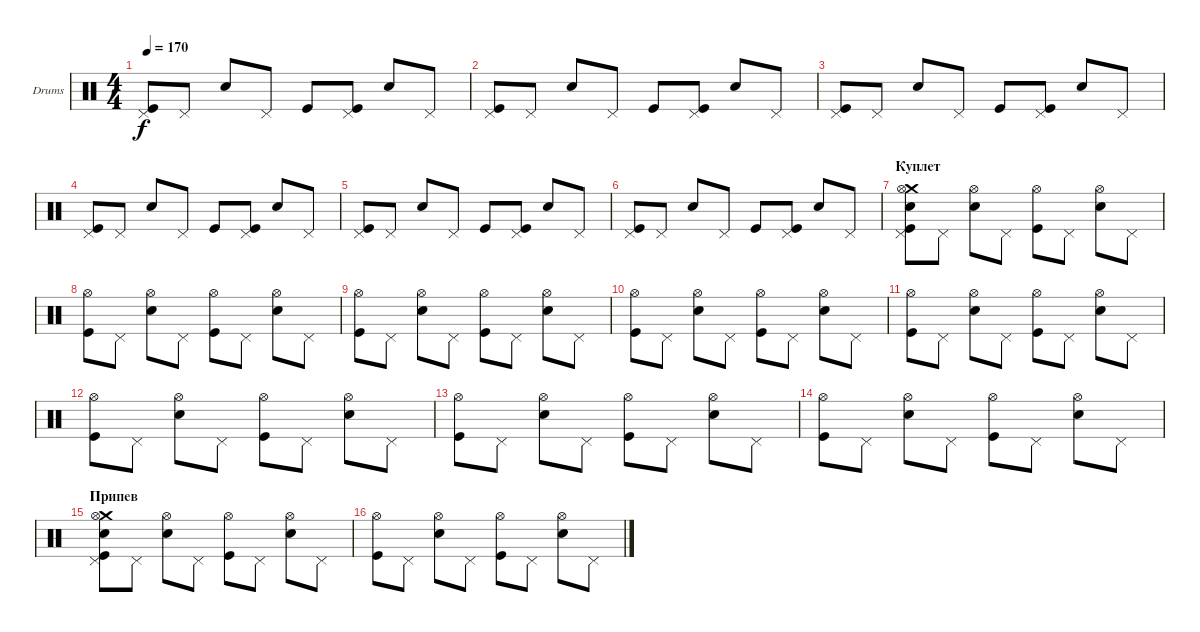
\defaultSystemsLayout 4
\bracketExtendMode groupsimilarinstruments
\firstSystemTrackNameOrientation horizontal
\otherSystemsTrackNameOrientation horizontal
\track ("Е. Кулаков" "Drums") {instrument percussion}
\staff {score}
\articulation defaults
\ts (4 4)
\tempo 170
\clef neutral
\ks c
("Kick (hit)" "Pedal Hi-Hat (hit)").8{dy f} "Pedal Hi-Hat (hit)".8 "Snare (hit) 2".8 "Pedal Hi-Hat (hit)".8 "Kick (hit)".8 ("Kick (hit)" "Pedal Hi-Hat (hit)").8 "Snare (hit) 2".8 "Pedal Hi-Hat (hit)".8 |
("Kick (hit)" "Pedal Hi-Hat (hit)").8 "Pedal Hi-Hat (hit)".8 "Snare (hit) 2".8 "Pedal Hi-Hat (hit)".8 "Kick (hit)".8 ("Kick (hit)" "Pedal Hi-Hat (hit)").8 "Snare (hit) 2".8 "Pedal Hi-Hat (hit)".8 |
("Kick (hit)" "Pedal Hi-Hat (hit)").8 "Pedal Hi-Hat (hit)".8 "Snare (hit) 2".8 "Pedal Hi-Hat (hit)".8 "Kick (hit)".8 ("Kick (hit)" "Pedal Hi-Hat (hit)").8 "Snare (hit) 2".8 "Pedal Hi-Hat (hit)".8 |
("Kick (hit)" "Pedal Hi-Hat (hit)").8 "Pedal Hi-Hat (hit)".8 "Snare (hit) 2".8 "Pedal Hi-Hat (hit)".8 "Kick (hit)".8 ("Kick (hit)" "Pedal Hi-Hat (hit)").8 "Snare (hit) 2".8 "Pedal Hi-Hat (hit)".8 |
("Kick (hit)" "Pedal Hi-Hat (hit)").8 "Pedal Hi-Hat (hit)".8 "Snare (hit) 2".8 "Pedal Hi-Hat (hit)".8 "Kick (hit)".8 ("Kick (hit)" "Pedal Hi-Hat (hit)").8 "Snare (hit) 2".8 "Pedal Hi-Hat (hit)".8 |
("Kick (hit)" "Pedal Hi-Hat (hit)").8 "Pedal Hi-Hat (hit)".8 "Snare (hit) 2".8 "Pedal Hi-Hat (hit)".8 "Kick (hit)".8 ("Kick (hit)" "Pedal Hi-Hat (hit)").8 "Snare (hit) 2".8 "Pedal Hi-Hat (hit)".8 |
\section ("" "Куплет")
("Kick (hit)" "Snare (hit) 2" "Crash medium (hit)" "Pedal Hi-Hat (hit)" "Hi-Hat (open)").8 "Pedal Hi-Hat (hit)".8 ("Snare (hit) 2" "Hi-Hat (open)").8 "Pedal Hi-Hat (hit)".8 ("Kick (hit)" "Hi-Hat (open)").8 "Pedal Hi-Hat (hit)".8 ("Snare (hit) 2" "Hi-Hat (open)").8 "Pedal Hi-Hat (hit)".8 |
("Kick (hit)" "Hi-Hat (open)").8 "Pedal Hi-Hat (hit)".8 ("Snare (hit) 2" "Hi-Hat (open)").8 "Pedal Hi-Hat (hit)".8 ("Kick (hit)" "Hi-Hat (open)").8 "Pedal Hi-Hat (hit)".8 ("Snare (hit) 2" "Hi-Hat (open)").8 "Pedal Hi-Hat (hit)".8 |
("Kick (hit)" "Hi-Hat (open)").8 "Pedal Hi-Hat (hit)".8 ("Snare (hit) 2" "Hi-Hat (open)").8 "Pedal Hi-Hat (hit)".8 ("Kick (hit)" "Hi-Hat (open)").8 "Pedal Hi-Hat (hit)".8 ("Snare (hit) 2" "Hi-Hat (open)").8 "Pedal Hi-Hat (hit)".8 |
("Kick (hit)" "Hi-Hat (open)").8 "Pedal Hi-Hat (hit)".8 ("Snare (hit) 2" "Hi-Hat (open)").8 "Pedal Hi-Hat (hit)".8 ("Kick (hit)" "Hi-Hat (open)").8 "Pedal Hi-Hat (hit)".8 ("Snare (hit) 2" "Hi-Hat (open)").8 "Pedal Hi-Hat (hit)".8 |
("Kick (hit)" "Hi-Hat (open)").8 "Pedal Hi-Hat (hit)".8 ("Snare (hit) 2" "Hi-Hat (open)").8 "Pedal Hi-Hat (hit)".8 ("Kick (hit)" "Hi-Hat (open)").8 "Pedal Hi-Hat (hit)".8 ("Snare (hit) 2" "Hi-Hat (open)").8 "Pedal Hi-Hat (hit)".8 |
("Kick (hit)" "Hi-Hat (open)").8 "Pedal Hi-Hat (hit)".8 ("Snare (hit) 2" "Hi-Hat (open)").8 "Pedal Hi-Hat (hit)".8 ("Kick (hit)" "Hi-Hat (open)").8 "Pedal Hi-Hat (hit)".8 ("Snare (hit) 2" "Hi-Hat (open)").8 "Pedal Hi-Hat (hit)".8 |
("Kick (hit)" "Hi-Hat (open)").8 "Pedal Hi-Hat (hit)".8 ("Snare (hit) 2" "Hi-Hat (open)").8 "Pedal Hi-Hat (hit)".8 ("Kick (hit)" "Hi-Hat (open)").8 "Pedal Hi-Hat (hit)".8 ("Snare (hit) 2" "Hi-Hat (open)").8 "Pedal Hi-Hat (hit)".8 |
("Kick (hit)" "Hi-Hat (open)").8 "Pedal Hi-Hat (hit)".8 ("Snare (hit) 2" "Hi-Hat (open)").8 "Pedal Hi-Hat (hit)".8 ("Kick (hit)" "Hi-Hat (open)").8 "Pedal Hi-Hat (hit)".8 ("Snare (hit) 2" "Hi-Hat (open)").8 "Pedal Hi-Hat (hit)".8 |
\section ("" "Припев")
("Kick (hit)" "Snare (hit) 2" "Crash medium (hit)" "Pedal Hi-Hat (hit)" "Hi-Hat (open)").8 "Pedal Hi-Hat (hit)".8 ("Snare (hit) 2" "Hi-Hat (open)").8 "Pedal Hi-Hat (hit)".8 ("Kick (hit)" "Hi-Hat (open)").8 "Pedal Hi-Hat (hit)".8 ("Snare (hit) 2" "Hi-Hat (open)").8 "Pedal Hi-Hat (hit)".8 |
("Kick (hit)" "Hi-Hat (open)").8 "Pedal Hi-Hat (hit)".8 ("Snare (hit) 2" "Hi-Hat (open)").8 "Pedal Hi-Hat (hit)".8 ("Kick (hit)" "Hi-Hat (open)").8 "Pedal Hi-Hat (hit)".8 ("Snare (hit) 2" "Hi-Hat (open)").8 "Pedal Hi-Hat (hit)".8
